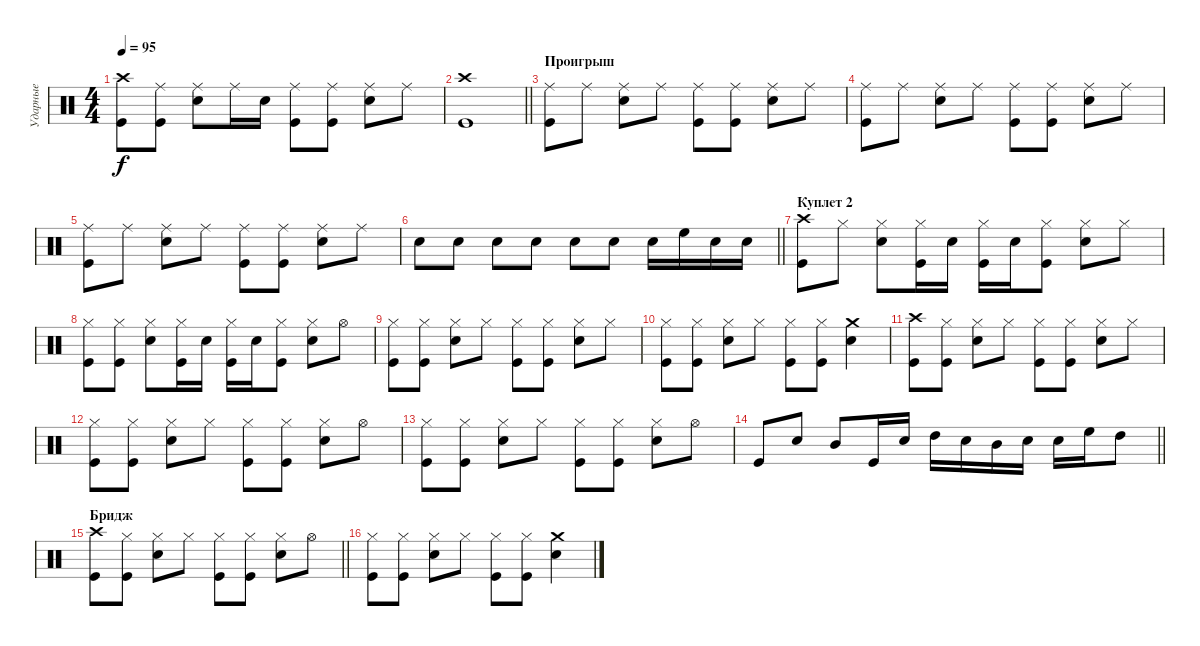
\track ("Ударные" "Ударные") {instrument percussion}
\staff {score}
\articulation defaults
\ts (4 4)
\tempo 95
\clef neutral
\ks c
("Crash high (hit)" "Kick (hit)").8{dy f} ("Ride (middle)" "Kick (hit)").8 ("Ride (middle)" "Snare (hit) 2").8 "Ride (middle)".16 "Snare (hit) 2".16 ("Ride (middle)" "Kick (hit)").8 ("Ride (middle)" "Kick (hit)").8 ("Ride (middle)" "Snare (hit) 2").8 "Ride (middle)".8 |
\barLineRight lightlight
("Crash high (hit)" "Kick (hit)").1 |
\section ("" "Проигрыш")
("Ride (middle)" "Kick (hit)").8 "Ride (middle)".8 ("Ride (middle)" "Snare (hit) 2").8 "Ride (middle)".8 ("Ride (middle)" "Kick (hit)").8 ("Ride (middle)" "Kick (hit)").8 ("Ride (middle)" "Snare (hit) 2").8 "Ride (middle)".8 |
("Ride (middle)" "Kick (hit)").8 "Ride (middle)".8 ("Ride (middle)" "Snare (hit) 2").8 "Ride (middle)".8 ("Ride (middle)" "Kick (hit)").8 ("Ride (middle)" "Kick (hit)").8 ("Ride (middle)" "Snare (hit) 2").8 "Ride (middle)".8 |
("Ride (middle)" "Kick (hit)").8 "Ride (middle)".8 ("Ride (middle)" "Snare (hit) 2").8 "Ride (middle)".8 ("Ride (middle)" "Kick (hit)").8 ("Ride (middle)" "Kick (hit)").8 ("Ride (middle)" "Snare (hit) 2").8 "Ride (middle)".8 |
\barLineRight lightlight "Snare (hit) 2".8{volume 4} "Snare (hit) 2".8{volume 15} "Snare (hit) 2".8 "Snare (hit) 2".8 "Snare (hit) 2".8 "Snare (hit) 2".8 "Snare (hit) 2".16 "High Floor Tom (hit)".16 "Snare (hit) 2".16 "Snare (hit) 2".16
|
\section ("" "Куплет 2")
("Crash high (hit)" "Kick (hit)").8 "Hi-Hat (closed)".8 ("Hi-Hat (closed)" "Snare (hit) 2").8 ("Hi-Hat (closed)" "Kick (hit)").16 "Snare (hit) 2".16 ("Hi-Hat (closed)" "Kick (hit)").16 "Snare (hit) 2".16 ("Hi-Hat (closed)" "Kick (hit)").8 ("Hi-Hat (closed)" "Snare (hit) 2").8 "Hi-Hat (closed)".8 |
("Hi-Hat (closed)" "Kick (hit)").8 ("Hi-Hat (closed)" "Kick (hit)").8 ("Hi-Hat (closed)" "Snare (hit) 2").8 ("Hi-Hat (closed)" "Kick (hit)").16 "Snare (hit) 2".16 ("Hi-Hat (closed)" "Kick (hit)").16 "Snare (hit) 2".16 ("Hi-Hat (closed)" "Kick (hit)").8 ("Hi-Hat (closed)" "Snare (hit) 2").8 "Hi-Hat (open)".8 |
("Hi-Hat (closed)" "Kick (hit)").8 ("Hi-Hat (closed)" "Kick (hit)").8 ("Hi-Hat (closed)" "Snare (hit) 2").8 "Hi-Hat (closed)".8 ("Hi-Hat (closed)" "Kick (hit)").8 ("Hi-Hat (closed)" "Kick (hit)").8 ("Hi-Hat (closed)" "Snare (hit) 2").8 "Hi-Hat (closed)".8 |
("Hi-Hat (closed)" "Kick (hit)").8 ("Hi-Hat (closed)" "Kick (hit)").8 ("Hi-Hat (closed)" "Snare (hit) 2").8 "Hi-Hat (closed)".8 ("Hi-Hat (closed)" "Kick (hit)").8 ("Hi-Hat (closed)" "Kick (hit)").8 ("Crash medium (hit)" "Snare (hit) 2").4 |
("Crash high (hit)" "Kick (hit)").8 ("Hi-Hat (closed)" "Kick (hit)").8 ("Hi-Hat (closed)" "Snare (hit) 2").8 "Hi-Hat (closed)".8 ("Hi-Hat (closed)" "Kick (hit)").8 ("Hi-Hat (closed)" "Kick (hit)").8 ("Hi-Hat (closed)" "Snare (hit) 2").8 "Hi-Hat (closed)".8 |
("Hi-Hat (closed)" "Kick (hit)").8 ("Hi-Hat (closed)" "Kick (hit)").8 ("Hi-Hat (closed)" "Snare (hit) 2").8 "Hi-Hat (closed)".8 ("Hi-Hat (closed)" "Kick (hit)").8 ("Hi-Hat (closed)" "Kick (hit)").8 ("Hi-Hat (closed)" "Snare (hit) 2").8 "Hi-Hat (open)".8 |
("Hi-Hat (closed)" "Kick (hit)").8 ("Hi-Hat (closed)" "Kick (hit)").8 ("Hi-Hat (closed)" "Snare (hit) 2").8 "Hi-Hat (closed)".8 ("Hi-Hat (closed)" "Kick (hit)").8 ("Hi-Hat (closed)" "Kick (hit)").8 ("Hi-Hat (closed)" "Snare (hit) 2").8 "Hi-Hat (open)".8 |
\barLineRight lightlight "Kick (hit)".8 "Snare (hit) 2".8 "Mid Tom (hit)".8 "Kick (hit)".16 "Snare (hit) 2".16 "High Tom (hit)".16 "Snare (hit) 2".16 "Mid Tom (hit)".16 "Snare (hit) 2".16 "Snare (hit) 2".16 "High Floor Tom (hit)".16 "High Tom (hit)".8
|
\section ("" "Бридж")
\barLineRight lightlight
("Crash high (hit)" "Kick (hit)").8 ("Hi-Hat (closed)" "Kick (hit)").8 ("Hi-Hat (closed)" "Snare (hit) 2").8 "Hi-Hat (closed)".8 ("Hi-Hat (closed)" "Kick (hit)").8 ("Hi-Hat (closed)" "Kick (hit)").8 ("Hi-Hat (closed)" "Snare (hit) 2").8 "Hi-Hat (open)".8 |
("Hi-Hat (closed)" "Kick (hit)").8 ("Hi-Hat (closed)" "Kick (hit)").8 ("Hi-Hat (closed)" "Snare (hit) 2").8 "Hi-Hat (closed)".8 ("Hi-Hat (closed)" "Kick (hit)").8 ("Hi-Hat (closed)" "Kick (hit)").8 ("Crash medium (hit)" "Snare (hit) 2").4
